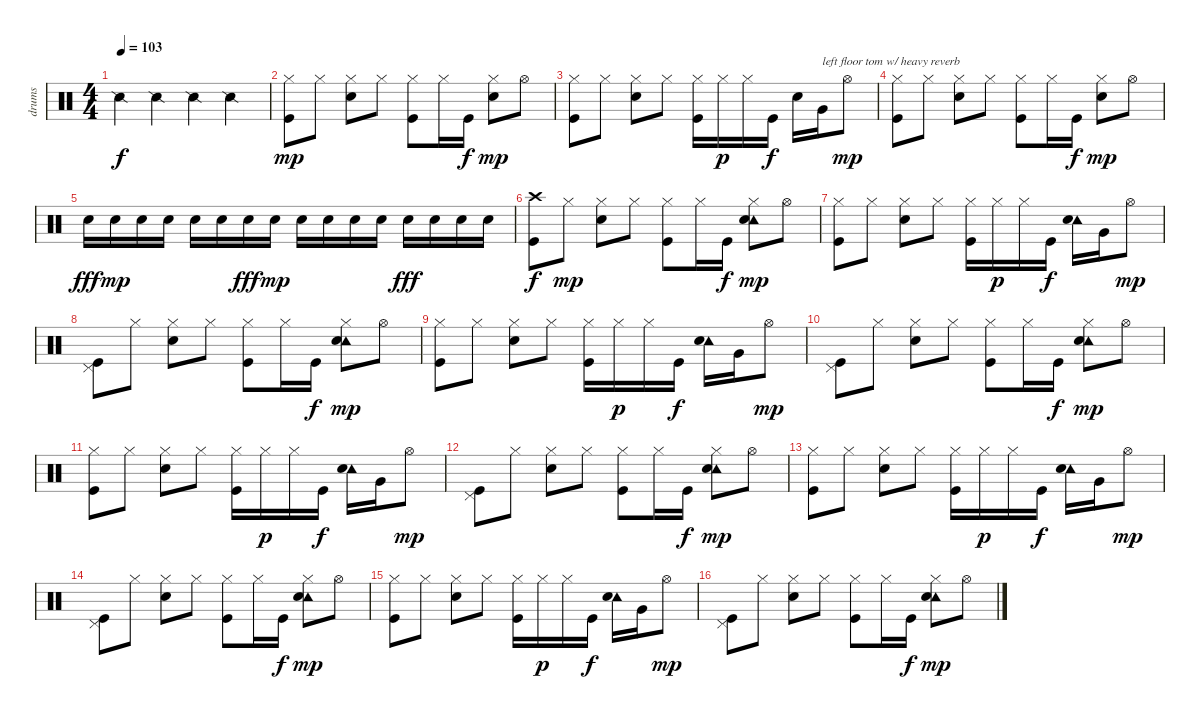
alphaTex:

\track ("drums" "drums") {instrument percussion}
\staff {score}
\articulation defaults
\ts (4 4)
\tempo 103
\clef neutral
\ks c "Snare (side stick) 2".4{dy f} "Snare (side stick) 2".4 "Snare (side stick) 2".4 "Snare (side stick) 2".4
|
("Hi-Hat (closed)" "Kick (hit)").8{dy mp} "Hi-Hat (closed)".8 ("Hi-Hat (closed)" "Electric Snare (hit)").8 "Hi-Hat (closed)".8 ("Hi-Hat (closed)" "Kick (hit)").8 "Hi-Hat (closed)".16 "Kick (hit)".16{dy f} ("Hi-Hat (closed)" "Electric Snare (hit)").8{dy mp} "Hi-Hat (open)".8 |
("Hi-Hat (closed)" "Kick (hit)").8 "Hi-Hat (closed)".8 ("Hi-Hat (closed)" "Electric Snare (hit)").8 "Hi-Hat (closed)".8 ("Hi-Hat (closed)" "Kick (hit)").16 "Hi-Hat (closed)".16{dy p} "Hi-Hat (closed)".16 "Kick (hit)".16{dy f} "Electric Snare (hit)".16 "Very Low Tom (hit)".16{txt "left floor tom w/ heavy reverb"} "Hi-Hat (open)".8{dy mp} |
("Hi-Hat (closed)" "Kick (hit)").8 "Hi-Hat (closed)".8 ("Hi-Hat (closed)" "Electric Snare (hit)").8 "Hi-Hat (closed)".8 ("Hi-Hat (closed)" "Kick (hit)").8 "Hi-Hat (closed)".16 "Kick (hit)".16{dy f} ("Hi-Hat (closed)" "Electric Snare (hit)").8{dy mp} "Hi-Hat (open)".8 |
"Electric Snare (hit)".16{dy fff} "Electric Snare (hit)".16{dy mp} "Electric Snare (hit)".16 "Electric Snare (hit)".16 "Electric Snare (hit)".16 "Electric Snare (hit)".16 "Electric Snare (hit)".16{dy fff} "Electric Snare (hit)".16{dy mp} "Electric Snare (hit)".16 "Electric Snare (hit)".16 "Electric Snare (hit)".16 "Electric Snare (hit)".16 "Electric Snare (hit)".16{dy fff} "Electric Snare (hit)".16 "Electric Snare (hit)".16 "Electric Snare (hit)".16 |
("Crash high (hit)" "Kick (hit)").8{dy f} "Hi-Hat (closed)".8{dy mp} ("Hi-Hat (closed)" "Electric Snare (hit)").8 "Hi-Hat (closed)".8 ("Hi-Hat (closed)" "Kick (hit)").8 "Hi-Hat (closed)".16 "Kick (hit)".16{dy f} ("Tambourine (hit)" "Hi-Hat (closed)" "Electric Snare (hit)").8{dy mp} "Hi-Hat (open)".8 |
("Hi-Hat (closed)" "Kick (hit)").8 "Hi-Hat (closed)".8 ("Hi-Hat (closed)" "Electric Snare (hit)").8 "Hi-Hat (closed)".8 ("Hi-Hat (closed)" "Kick (hit)").16 "Hi-Hat (closed)".16{dy p} "Hi-Hat (closed)".16 "Kick (hit)".16{dy f} ("Tambourine (hit)" "Electric Snare (hit)").16 "Very Low Tom (hit)".16 "Hi-Hat (open)".8{dy mp} |
("Pedal Hi-Hat (hit)" "Kick (hit)").8 "Hi-Hat (closed)".8 ("Hi-Hat (closed)" "Electric Snare (hit)").8 "Hi-Hat (closed)".8 ("Hi-Hat (closed)" "Kick (hit)").8 "Hi-Hat (closed)".16 "Kick (hit)".16{dy f} ("Tambourine (hit)" "Hi-Hat (closed)" "Electric Snare (hit)").8{dy mp} "Hi-Hat (open)".8 |
("Hi-Hat (closed)" "Kick (hit)").8 "Hi-Hat (closed)".8 ("Hi-Hat (closed)" "Electric Snare (hit)").8 "Hi-Hat (closed)".8 ("Hi-Hat (closed)" "Kick (hit)").16 "Hi-Hat (closed)".16{dy p} "Hi-Hat (closed)".16 "Kick (hit)".16{dy f} ("Tambourine (hit)" "Electric Snare (hit)").16 "Very Low Tom (hit)".16 "Hi-Hat (open)".8{dy mp} |
("Pedal Hi-Hat (hit)" "Kick (hit)").8 "Hi-Hat (closed)".8 ("Hi-Hat (closed)" "Electric Snare (hit)").8 "Hi-Hat (closed)".8 ("Hi-Hat (closed)" "Kick (hit)").8 "Hi-Hat (closed)".16 "Kick (hit)".16{dy f} ("Tambourine (hit)" "Hi-Hat (closed)" "Electric Snare (hit)").8{dy mp} "Hi-Hat (open)".8 |
("Hi-Hat (closed)" "Kick (hit)").8 "Hi-Hat (closed)".8 ("Hi-Hat (closed)" "Electric Snare (hit)").8 "Hi-Hat (closed)".8 ("Hi-Hat (closed)" "Kick (hit)").16 "Hi-Hat (closed)".16{dy p} "Hi-Hat (closed)".16 "Kick (hit)".16{dy f} ("Tambourine (hit)" "Electric Snare (hit)").16 "Very Low Tom (hit)".16 "Hi-Hat (open)".8{dy mp} |
("Pedal Hi-Hat (hit)" "Kick (hit)").8 "Hi-Hat (closed)".8 ("Hi-Hat (closed)" "Electric Snare (hit)").8 "Hi-Hat (closed)".8 ("Hi-Hat (closed)" "Kick (hit)").8 "Hi-Hat (closed)".16 "Kick (hit)".16{dy f} ("Tambourine (hit)" "Hi-Hat (closed)" "Electric Snare (hit)").8{dy mp} "Hi-Hat (open)".8 |
("Hi-Hat (closed)" "Kick (hit)").8 "Hi-Hat (closed)".8 ("Hi-Hat (closed)" "Electric Snare (hit)").8 "Hi-Hat (closed)".8 ("Hi-Hat (closed)" "Kick (hit)").16 "Hi-Hat (closed)".16{dy p} "Hi-Hat (closed)".16 "Kick (hit)".16{dy f} ("Tambourine (hit)" "Electric Snare (hit)").16 "Very Low Tom (hit)".16 "Hi-Hat (open)".8{dy mp} |
("Pedal Hi-Hat (hit)" "Kick (hit)").8 "Hi-Hat (closed)".8 ("Hi-Hat (closed)" "Electric Snare (hit)").8 "Hi-Hat (closed)".8 ("Hi-Hat (closed)" "Kick (hit)").8 "Hi-Hat (closed)".16 "Kick (hit)".16{dy f} ("Tambourine (hit)" "Hi-Hat (closed)" "Electric Snare (hit)").8{dy mp} "Hi-Hat (open)".8 |
("Hi-Hat (closed)" "Kick (hit)").8 "Hi-Hat (closed)".8 ("Hi-Hat (closed)" "Electric Snare (hit)").8 "Hi-Hat (closed)".8 ("Hi-Hat (closed)" "Kick (hit)").16 "Hi-Hat (closed)".16{dy p} "Hi-Hat (closed)".16 "Kick (hit)".16{dy f} ("Tambourine (hit)" "Electric Snare (hit)").16 "Very Low Tom (hit)".16 "Hi-Hat (open)".8{dy mp} |
("Pedal Hi-Hat (hit)" "Kick (hit)").8 "Hi-Hat (closed)".8 ("Hi-Hat (closed)" "Electric Snare (hit)").8 "Hi-Hat (closed)".8 ("Hi-Hat (closed)" "Kick (hit)").8 "Hi-Hat (closed)".16 "Kick (hit)".16{dy f} ("Tambourine (hit)" "Hi-Hat (closed)" "Electric Snare (hit)").8{dy mp} "Hi-Hat (open)".8
